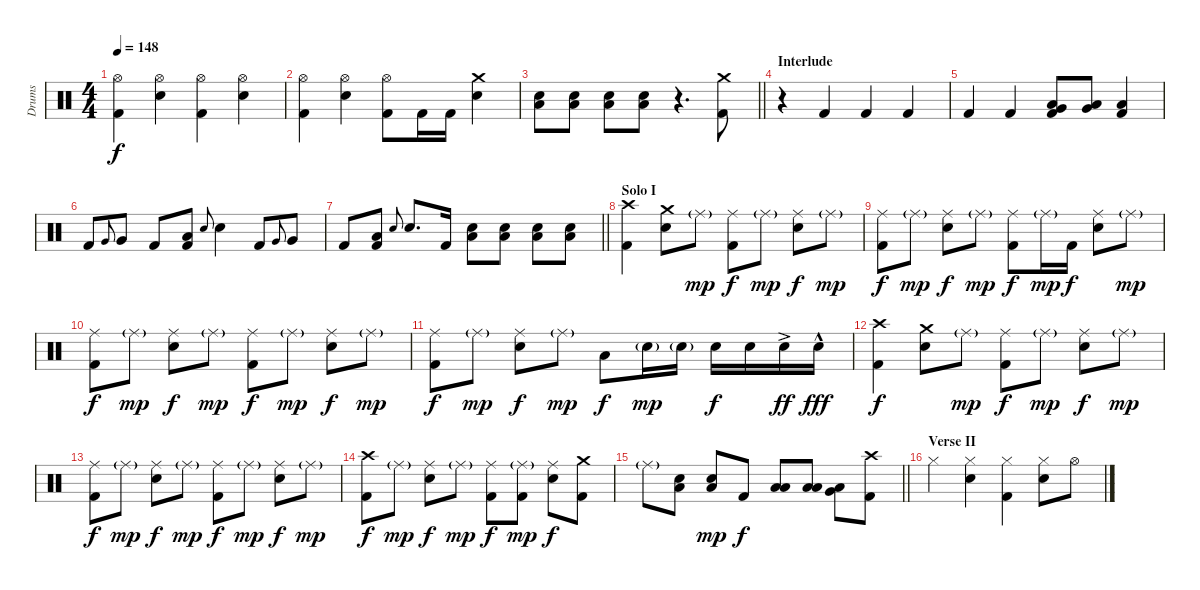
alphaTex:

\track ("Drums" "Drums") {instrument percussion}
\staff {score}
\articulation defaults
\ts (4 4)
\tempo 148
\clef neutral
\ks c
("Hi-Hat (open)" "Kick (hit) 2").4{dy f} ("Hi-Hat (open)" "Electric Snare (hit)").4 ("Hi-Hat (open)" "Kick (hit) 2").4 ("Hi-Hat (open)" "Electric Snare (hit)").4 |
("Hi-Hat (open)" "Kick (hit) 2").4 ("Hi-Hat (open)" "Electric Snare (hit)").4 ("Hi-Hat (open)" "Kick (hit) 2").8 "Kick (hit) 2".16 "Kick (hit) 2".16 ("Crash medium (hit)" "Electric Snare (hit)").4 |
\barLineRight lightlight
("Low Floor Tom (hit)" "Electric Snare (hit)").8 ("Low Floor Tom (hit)" "Electric Snare (hit)").8 ("Low Floor Tom (hit)" "Electric Snare (hit)").8 ("Low Floor Tom (hit)" "Electric Snare (hit)").8 r.4{d} ("Crash medium (hit)" "Kick (hit) 2").8 |
\section ("" "Interlude")
r.4 "Kick (hit) 2".4 "Kick (hit) 2".4 "Kick (hit) 2".4 |
"Kick (hit) 2".4 "Kick (hit) 2".4 ("Low Tom (hit)" "Kick (hit) 2" "Very Low Tom (hit)").8 ("Very Low Tom (hit)" "Low Floor Tom (hit)").8 ("Low Floor Tom (hit)" "Kick (hit) 2").4 |
"Kick (hit) 2".8 "Very Low Tom (hit)".8{gr onbeat} "Very Low Tom (hit)".8 "Kick (hit) 2".8 ("Low Floor Tom (hit)" "Kick (hit) 2").8 "Electric Snare (hit)".8{gr onbeat} "Electric Snare (hit)".4 "Kick (hit) 2".8 "Very Low Tom (hit)".8{gr onbeat} "Very Low Tom (hit)".8 |
\barLineRight lightlight "Kick (hit) 2".8
("Low Floor Tom (hit)" "Kick (hit) 2").8 "Electric Snare (hit)".8{gr onbeat} "Electric Snare (hit)".8{d} "Kick (hit) 2".16 ("Low Floor Tom (hit)" "Electric Snare (hit)").8 ("Low Floor Tom (hit)" "Electric Snare (hit)").8 ("Low Floor Tom (hit)" "Electric Snare (hit)").8 ("Low Floor Tom (hit)" "Electric Snare (hit)").8 |
\section ("" "Solo I")
("Crash high (hit)" "Kick (hit) 2").4 ("Crash medium (hit)" "Electric Snare (hit)").8 "Ride (middle)"{g}.8{dy mp} ("Ride (middle)" "Kick (hit) 2").8{dy f} "Ride (middle)"{g}.8{dy mp} ("Ride (middle)" "Electric Snare (hit)").8{dy f} "Ride (middle)"{g}.8{dy mp} |
("Ride (middle)" "Kick (hit) 2").8{dy f} "Ride (middle)"{g}.8{dy mp} ("Ride (middle)" "Electric Snare (hit)").8{dy f} "Ride (middle)"{g}.8{dy mp} ("Ride (middle)" "Kick (hit) 2").8{dy f} "Ride (middle)"{g}.16{dy mp} "Kick (hit) 2".16{dy f} ("Ride (middle)" "Electric Snare (hit)").8 "Ride (middle)"{g}.8{dy mp} |
("Ride (middle)" "Kick (hit) 2").8{dy f} "Ride (middle)"{g}.8{dy mp} ("Ride (middle)" "Electric Snare (hit)").8{dy f} "Ride (middle)"{g}.8{dy mp} ("Ride (middle)" "Kick (hit) 2").8{dy f} "Ride (middle)"{g}.8{dy mp} ("Ride (middle)" "Electric Snare (hit)").8{dy f} "Ride (middle)"{g}.8{dy mp} |
("Ride (middle)" "Kick (hit) 2").8{dy f} "Ride (middle)"{g}.8{dy mp} ("Ride (middle)" "Electric Snare (hit)").8{dy f} "Ride (middle)"{g}.8{dy mp} "Low Tom (hit)".8{dy f} "Electric Snare (hit)"{g}.16{dy mp} "Electric Snare (hit)"{g}.16 "Electric Snare (hit)".16{dy f} "Electric Snare (hit)".16 "Electric Snare (hit)"{ac}.16{dy ff} "Electric Snare (hit)"{hac}.16{dy fff} |
("Crash high (hit)" "Kick (hit) 2").4{dy f} ("Crash medium (hit)" "Electric Snare (hit)").8 "Ride (middle)"{g}.8{dy mp} ("Ride (middle)" "Kick (hit) 2").8{dy f} "Ride (middle)"{g}.8{dy mp} ("Ride (middle)" "Electric Snare (hit)").8{dy f} "Ride (middle)"{g}.8{dy mp} |
("Ride (middle)" "Kick (hit) 2").8{dy f} "Ride (middle)"{g}.8{dy mp} ("Ride (middle)" "Electric Snare (hit)").8{dy f} "Ride (middle)"{g}.8{dy mp} ("Ride (middle)" "Kick (hit) 2").8{dy f} "Ride (middle)"{g}.8{dy mp} ("Ride (middle)" "Electric Snare (hit)").8{dy f} "Ride (middle)"{g}.8{dy mp} |
("Crash high (hit)" "Kick (hit) 2").8{dy f} "Ride (middle)"{g}.8{dy mp} ("Ride (middle)" "Electric Snare (hit)").8{dy f} "Ride (middle)"{g}.8{dy mp} ("Ride (middle)" "Kick (hit) 2").8{dy f} ("Ride (middle)"{g} "Kick (hit) 2").8{dy mp} ("Ride (middle)" "Electric Snare (hit)").8{dy f} ("Crash medium (hit)" "Kick (hit) 2").8 |
\barLineRight lightlight "Ride (middle)"{g}.8
("Low Floor Tom (hit)" "Electric Snare (hit)").8 ("Low Floor Tom (hit)" "Electric Snare (hit)").8{dy mp} "Kick (hit) 2".8{dy f} ("Low Tom (hit)" "Low Floor Tom (hit)").8 ("Low Tom (hit)" "Low Floor Tom (hit)").8 ("Very Low Tom (hit)" "Low Floor Tom (hit)").8 ("Kick (hit) 2" "Crash high (hit)").8 |
\section ("" "Verse II")
"Hi-Hat (closed)".4 ("Electric Snare (hit)" "Hi-Hat (closed)").4 ("Kick (hit) 2" "Hi-Hat (closed)").4 ("Electric Snare (hit)" "Hi-Hat (closed)").8 "Hi-Hat (open)".8
